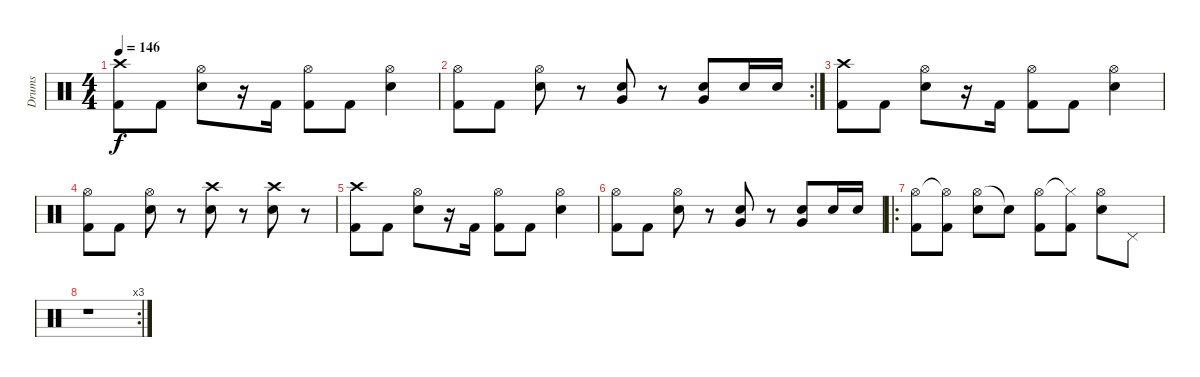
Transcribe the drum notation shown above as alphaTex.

\track ("Drums" "Drums") {instrument percussion}
\staff {score}
\articulation defaults
\ts (4 4)
\tempo 146
\clef neutral
\ks c
("Crash high (hit)" "Kick (hit) 2").8{dy f} "Kick (hit) 2".8 ("Hi-Hat (open)" "Snare (hit) 2").8 r.16 "Kick (hit) 2".16 ("Hi-Hat (open)" "Kick (hit) 2").8 "Kick (hit) 2".8 ("Hi-Hat (open)" "Snare (hit) 2").4 |
\rc 2
("Hi-Hat (open)" "Kick (hit) 2").8 "Kick (hit) 2".8 ("Hi-Hat (open)" "Snare (hit) 2").8 r.8 ("Very Low Tom (hit)" "Snare (hit) 2").8 r.8 ("Very Low Tom (hit)" "Snare (hit) 2").8 "Snare (hit) 2".16 "Snare (hit) 2".16 |
("Crash high (hit)" "Kick (hit) 2").8 "Kick (hit) 2".8 ("Hi-Hat (open)" "Snare (hit) 2").8 r.16 "Kick (hit) 2".16 ("Hi-Hat (open)" "Kick (hit) 2").8 "Kick (hit) 2".8 ("Hi-Hat (open)" "Snare (hit) 2").4 |
("Hi-Hat (open)" "Kick (hit) 2").8 "Kick (hit) 2".8 ("Hi-Hat (open)" "Snare (hit) 2").8 r.8 ("Crash high (hit)" "Snare (hit) 2").8 r.8 ("Crash high (hit)" "Snare (hit) 2").8 r.8 |
("Crash high (hit)" "Kick (hit) 2").8 "Kick (hit) 2".8 ("Hi-Hat (open)" "Snare (hit) 2").8 r.16 "Kick (hit) 2".16 ("Hi-Hat (open)" "Kick (hit) 2").8 "Kick (hit) 2".8 ("Hi-Hat (open)" "Snare (hit) 2").4 |
("Hi-Hat (open)" "Kick (hit) 2").8 "Kick (hit) 2".8 ("Hi-Hat (open)" "Snare (hit) 2").8 r.8 ("Very Low Tom (hit)" "Snare (hit) 2").8 r.8 ("Very Low Tom (hit)" "Snare (hit) 2").8 "Snare (hit) 2".16 "Snare (hit) 2".16 |
\ro
("Hi-Hat (open)" "Kick (hit) 2").8 ("Hi-Hat (open)"{t} "Kick (hit) 2").8 ("Hi-Hat (open)" "Snare (hit) 2").8 "Snare (hit)"{t}.8 ("Hi-Hat (open)" "Kick (hit) 2").8 ("Hi-Hat (closed)"{t} "Kick (hit) 2").8 ("Hi-Hat (open)" "Snare (hit) 2").8 "Pedal Hi-Hat (hit)".8 |
\rc 3
r.1
